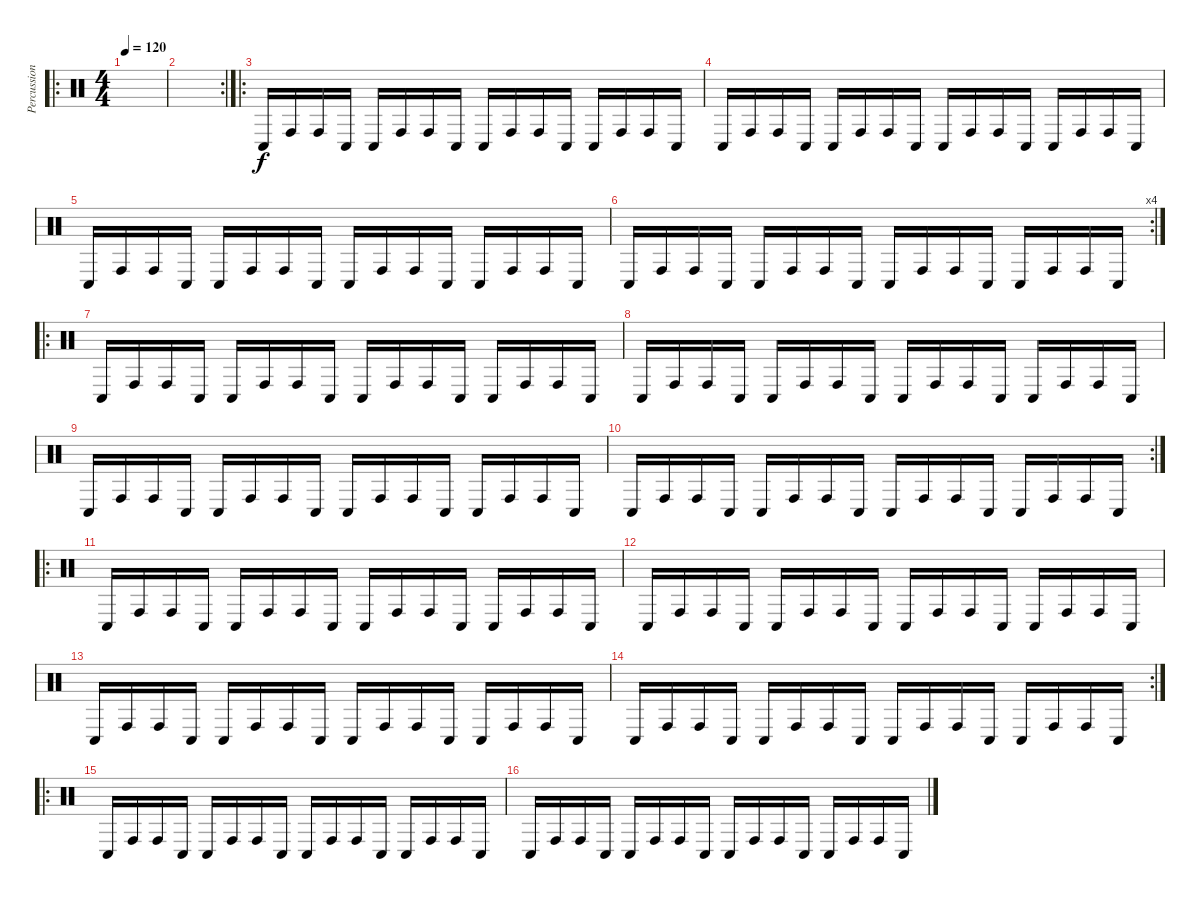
\track ("Percussions" "Percussion") {instrument percussion}
\staff {score}
\articulation defaults
\ro
\ts (4 4)
\tempo 120
\clef neutral
\ks c
|
\rc 2
|
\ro "Conga low (hit)".16 "Conga high (hit)".16 "Conga high (hit)".16 "Conga low (hit)".16 "Conga low (hit)".16 "Conga high (hit)".16 "Conga high (hit)".16 "Conga low (hit)".16 "Conga low (hit)".16 "Conga high (hit)".16 "Conga high (hit)".16 "Conga low (hit)".16 "Conga low (hit)".16 "Conga high (hit)".16 "Conga high (hit)".16 "Conga low (hit)".16
|
"Conga low (hit)".16 "Conga high (hit)".16 "Conga high (hit)".16 "Conga low (hit)".16 "Conga low (hit)".16 "Conga high (hit)".16 "Conga high (hit)".16 "Conga low (hit)".16 "Conga low (hit)".16 "Conga high (hit)".16 "Conga high (hit)".16 "Conga low (hit)".16 "Conga low (hit)".16 "Conga high (hit)".16 "Conga high (hit)".16 "Conga low (hit)".16 |
"Conga low (hit)".16 "Conga high (hit)".16 "Conga high (hit)".16 "Conga low (hit)".16 "Conga low (hit)".16 "Conga high (hit)".16 "Conga high (hit)".16 "Conga low (hit)".16 "Conga low (hit)".16 "Conga high (hit)".16 "Conga high (hit)".16 "Conga low (hit)".16 "Conga low (hit)".16 "Conga high (hit)".16 "Conga high (hit)".16 "Conga low (hit)".16 |
\rc 4 "Conga low (hit)".16 "Conga high (hit)".16 "Conga high (hit)".16 "Conga low (hit)".16 "Conga low (hit)".16 "Conga high (hit)".16 "Conga high (hit)".16 "Conga low (hit)".16 "Conga low (hit)".16 "Conga high (hit)".16 "Conga high (hit)".16 "Conga low (hit)".16 "Conga low (hit)".16 "Conga high (hit)".16 "Conga high (hit)".16 "Conga low (hit)".16
|
\ro "Conga low (hit)".16 "Conga high (hit)".16 "Conga high (hit)".16 "Conga low (hit)".16 "Conga low (hit)".16 "Conga high (hit)".16 "Conga high (hit)".16 "Conga low (hit)".16 "Conga low (hit)".16 "Conga high (hit)".16 "Conga high (hit)".16 "Conga low (hit)".16 "Conga low (hit)".16 "Conga high (hit)".16 "Conga high (hit)".16 "Conga low (hit)".16
|
"Conga low (hit)".16 "Conga high (hit)".16 "Conga high (hit)".16 "Conga low (hit)".16 "Conga low (hit)".16 "Conga high (hit)".16 "Conga high (hit)".16 "Conga low (hit)".16 "Conga low (hit)".16 "Conga high (hit)".16 "Conga high (hit)".16 "Conga low (hit)".16 "Conga low (hit)".16 "Conga high (hit)".16 "Conga high (hit)".16 "Conga low (hit)".16 |
"Conga low (hit)".16 "Conga high (hit)".16 "Conga high (hit)".16 "Conga low (hit)".16 "Conga low (hit)".16 "Conga high (hit)".16 "Conga high (hit)".16 "Conga low (hit)".16 "Conga low (hit)".16 "Conga high (hit)".16 "Conga high (hit)".16 "Conga low (hit)".16 "Conga low (hit)".16 "Conga high (hit)".16 "Conga high (hit)".16 "Conga low (hit)".16 |
\rc 2 "Conga low (hit)".16 "Conga high (hit)".16 "Conga high (hit)".16 "Conga low (hit)".16 "Conga low (hit)".16 "Conga high (hit)".16 "Conga high (hit)".16 "Conga low (hit)".16 "Conga low (hit)".16 "Conga high (hit)".16 "Conga high (hit)".16 "Conga low (hit)".16 "Conga low (hit)".16 "Conga high (hit)".16 "Conga high (hit)".16 "Conga low (hit)".16
|
\ro "Conga low (hit)".16 "Conga high (hit)".16 "Conga high (hit)".16 "Conga low (hit)".16 "Conga low (hit)".16 "Conga high (hit)".16 "Conga high (hit)".16 "Conga low (hit)".16 "Conga low (hit)".16 "Conga high (hit)".16 "Conga high (hit)".16 "Conga low (hit)".16 "Conga low (hit)".16 "Conga high (hit)".16 "Conga high (hit)".16 "Conga low (hit)".16
|
"Conga low (hit)".16 "Conga high (hit)".16 "Conga high (hit)".16 "Conga low (hit)".16 "Conga low (hit)".16 "Conga high (hit)".16 "Conga high (hit)".16 "Conga low (hit)".16 "Conga low (hit)".16 "Conga high (hit)".16 "Conga high (hit)".16 "Conga low (hit)".16 "Conga low (hit)".16 "Conga high (hit)".16 "Conga high (hit)".16 "Conga low (hit)".16 |
"Conga low (hit)".16 "Conga high (hit)".16 "Conga high (hit)".16 "Conga low (hit)".16 "Conga low (hit)".16 "Conga high (hit)".16 "Conga high (hit)".16 "Conga low (hit)".16 "Conga low (hit)".16 "Conga high (hit)".16 "Conga high (hit)".16 "Conga low (hit)".16 "Conga low (hit)".16 "Conga high (hit)".16 "Conga high (hit)".16 "Conga low (hit)".16 |
\rc 2 "Conga low (hit)".16 "Conga high (hit)".16 "Conga high (hit)".16 "Conga low (hit)".16 "Conga low (hit)".16 "Conga high (hit)".16 "Conga high (hit)".16 "Conga low (hit)".16 "Conga low (hit)".16 "Conga high (hit)".16 "Conga high (hit)".16 "Conga low (hit)".16 "Conga low (hit)".16 "Conga high (hit)".16 "Conga high (hit)".16 "Conga low (hit)".16
|
\ro "Conga low (hit)".16 "Conga high (hit)".16 "Conga high (hit)".16 "Conga low (hit)".16 "Conga low (hit)".16 "Conga high (hit)".16 "Conga high (hit)".16 "Conga low (hit)".16 "Conga low (hit)".16 "Conga high (hit)".16 "Conga high (hit)".16 "Conga low (hit)".16 "Conga low (hit)".16 "Conga high (hit)".16 "Conga high (hit)".16 "Conga low (hit)".16
|
"Conga low (hit)".16 "Conga high (hit)".16 "Conga high (hit)".16 "Conga low (hit)".16 "Conga low (hit)".16 "Conga high (hit)".16 "Conga high (hit)".16 "Conga low (hit)".16 "Conga low (hit)".16 "Conga high (hit)".16 "Conga high (hit)".16 "Conga low (hit)".16 "Conga low (hit)".16 "Conga high (hit)".16 "Conga high (hit)".16 "Conga low (hit)".16
